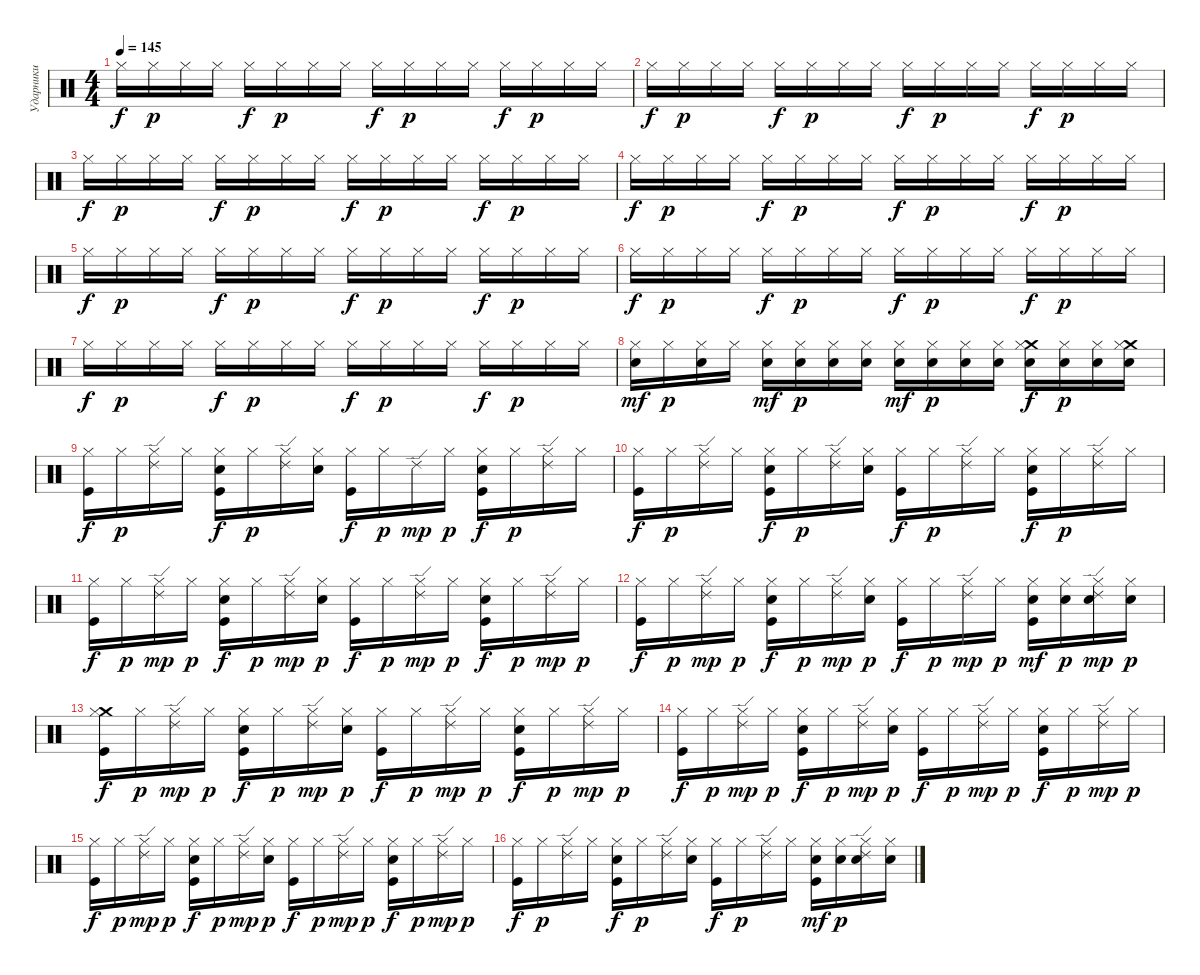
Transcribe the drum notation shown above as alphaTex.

\track ("Ударники" "Ударники") {instrument percussion}
\staff {score}
\articulation defaults
\ts (4 4)
\tempo 145
\clef neutral
\ks c "Hi-Hat (closed)".16{dy f} "Hi-Hat (closed)".16{dy p} "Hi-Hat (closed)".16 "Hi-Hat (closed)".16 "Hi-Hat (closed)".16{dy f} "Hi-Hat (closed)".16{dy p} "Hi-Hat (closed)".16 "Hi-Hat (closed)".16 "Hi-Hat (closed)".16{dy f} "Hi-Hat (closed)".16{dy p} "Hi-Hat (closed)".16 "Hi-Hat (closed)".16 "Hi-Hat (closed)".16{dy f} "Hi-Hat (closed)".16{dy p} "Hi-Hat (closed)".16 "Hi-Hat (closed)".16
|
"Hi-Hat (closed)".16{dy f} "Hi-Hat (closed)".16{dy p} "Hi-Hat (closed)".16 "Hi-Hat (closed)".16 "Hi-Hat (closed)".16{dy f} "Hi-Hat (closed)".16{dy p} "Hi-Hat (closed)".16 "Hi-Hat (closed)".16 "Hi-Hat (closed)".16{dy f} "Hi-Hat (closed)".16{dy p} "Hi-Hat (closed)".16 "Hi-Hat (closed)".16 "Hi-Hat (closed)".16{dy f} "Hi-Hat (closed)".16{dy p} "Hi-Hat (closed)".16 "Hi-Hat (closed)".16 |
"Hi-Hat (closed)".16{dy f} "Hi-Hat (closed)".16{dy p} "Hi-Hat (closed)".16 "Hi-Hat (closed)".16 "Hi-Hat (closed)".16{dy f} "Hi-Hat (closed)".16{dy p} "Hi-Hat (closed)".16 "Hi-Hat (closed)".16 "Hi-Hat (closed)".16{dy f} "Hi-Hat (closed)".16{dy p} "Hi-Hat (closed)".16 "Hi-Hat (closed)".16 "Hi-Hat (closed)".16{dy f} "Hi-Hat (closed)".16{dy p} "Hi-Hat (closed)".16 "Hi-Hat (closed)".16 |
"Hi-Hat (closed)".16{dy f} "Hi-Hat (closed)".16{dy p} "Hi-Hat (closed)".16 "Hi-Hat (closed)".16 "Hi-Hat (closed)".16{dy f} "Hi-Hat (closed)".16{dy p} "Hi-Hat (closed)".16 "Hi-Hat (closed)".16 "Hi-Hat (closed)".16{dy f} "Hi-Hat (closed)".16{dy p} "Hi-Hat (closed)".16 "Hi-Hat (closed)".16 "Hi-Hat (closed)".16{dy f} "Hi-Hat (closed)".16{dy p} "Hi-Hat (closed)".16 "Hi-Hat (closed)".16 |
"Hi-Hat (closed)".16{dy f} "Hi-Hat (closed)".16{dy p} "Hi-Hat (closed)".16 "Hi-Hat (closed)".16 "Hi-Hat (closed)".16{dy f} "Hi-Hat (closed)".16{dy p} "Hi-Hat (closed)".16 "Hi-Hat (closed)".16 "Hi-Hat (closed)".16{dy f} "Hi-Hat (closed)".16{dy p} "Hi-Hat (closed)".16 "Hi-Hat (closed)".16 "Hi-Hat (closed)".16{dy f} "Hi-Hat (closed)".16{dy p} "Hi-Hat (closed)".16 "Hi-Hat (closed)".16 |
"Hi-Hat (closed)".16{dy f} "Hi-Hat (closed)".16{dy p} "Hi-Hat (closed)".16 "Hi-Hat (closed)".16 "Hi-Hat (closed)".16{dy f} "Hi-Hat (closed)".16{dy p} "Hi-Hat (closed)".16 "Hi-Hat (closed)".16 "Hi-Hat (closed)".16{dy f} "Hi-Hat (closed)".16{dy p} "Hi-Hat (closed)".16 "Hi-Hat (closed)".16 "Hi-Hat (closed)".16{dy f} "Hi-Hat (closed)".16{dy p} "Hi-Hat (closed)".16 "Hi-Hat (closed)".16 |
"Hi-Hat (closed)".16{dy f} "Hi-Hat (closed)".16{dy p} "Hi-Hat (closed)".16 "Hi-Hat (closed)".16 "Hi-Hat (closed)".16{dy f} "Hi-Hat (closed)".16{dy p} "Hi-Hat (closed)".16 "Hi-Hat (closed)".16 "Hi-Hat (closed)".16{dy f} "Hi-Hat (closed)".16{dy p} "Hi-Hat (closed)".16 "Hi-Hat (closed)".16 "Hi-Hat (closed)".16{dy f} "Hi-Hat (closed)".16{dy p} "Hi-Hat (closed)".16 "Hi-Hat (closed)".16 |
("Electric Snare (hit)" "Hi-Hat (closed)").16{dy mf} "Hi-Hat (closed)".16{dy p} ("Electric Snare (hit)" "Hi-Hat (closed)").16 "Hi-Hat (closed)".16 ("Electric Snare (hit)" "Hi-Hat (closed)").16{dy mf} ("Electric Snare (hit)" "Hi-Hat (closed)").16{dy p} ("Electric Snare (hit)" "Hi-Hat (closed)").16 ("Electric Snare (hit)" "Hi-Hat (closed)").16 ("Electric Snare (hit)" "Hi-Hat (closed)").16{dy mf} ("Electric Snare (hit)" "Hi-Hat (closed)").16{dy p} ("Electric Snare (hit)" "Hi-Hat (closed)").16 ("Electric Snare (hit)" "Hi-Hat (closed)").16 ("Crash medium (hit)" "Electric Snare (hit)" "Hi-Hat (closed)").16{dy f} ("Electric Snare (hit)" "Hi-Hat (closed)").16{dy p} ("Electric Snare (hit)" "Hi-Hat (closed)").16 ("Crash medium (hit)" "Electric Snare (hit)" "Hi-Hat (closed)").16 |
("Kick (hit)" "Hi-Hat (closed)").16{dy f} "Hi-Hat (closed)".16{dy p} ("Ride (edge) 2" "Hi-Hat (closed)").16 "Hi-Hat (closed)".16 ("Electric Snare (hit)" "Kick (hit)" "Hi-Hat (closed)").16{dy f} "Hi-Hat (closed)".16{dy p} ("Ride (edge) 2" "Hi-Hat (closed)").16 ("Electric Snare (hit)" "Hi-Hat (closed)").16 ("Kick (hit)" "Hi-Hat (closed)").16{dy f} "Hi-Hat (closed)".16{dy p} "Ride (edge) 2".16{dy mp} "Hi-Hat (closed)".16{dy p} ("Electric Snare (hit)" "Kick (hit)" "Hi-Hat (closed)").16{dy f} "Hi-Hat (closed)".16{dy p} ("Ride (edge) 2" "Hi-Hat (closed)").16 "Hi-Hat (closed)".16 |
("Kick (hit)" "Hi-Hat (closed)").16{dy f} "Hi-Hat (closed)".16{dy p} ("Ride (edge) 2" "Hi-Hat (closed)").16 "Hi-Hat (closed)".16 ("Electric Snare (hit)" "Kick (hit)" "Hi-Hat (closed)").16{dy f} "Hi-Hat (closed)".16{dy p} ("Ride (edge) 2" "Hi-Hat (closed)").16 ("Electric Snare (hit)" "Hi-Hat (closed)").16 ("Kick (hit)" "Hi-Hat (closed)").16{dy f} "Hi-Hat (closed)".16{dy p} ("Ride (edge) 2" "Hi-Hat (closed)").16 "Hi-Hat (closed)".16 ("Electric Snare (hit)" "Kick (hit)" "Hi-Hat (closed)").16{dy f} "Hi-Hat (closed)".16{dy p} ("Ride (edge) 2" "Hi-Hat (closed)").16 "Hi-Hat (closed)".16 |
("Kick (hit)" "Hi-Hat (closed)").16{dy f} "Hi-Hat (closed)".16{dy p} ("Hi-Hat (closed)" "Ride (edge) 2").16{dy mp} "Hi-Hat (closed)".16{dy p} ("Electric Snare (hit)" "Kick (hit)" "Hi-Hat (closed)").16{dy f} "Hi-Hat (closed)".16{dy p} ("Hi-Hat (closed)" "Ride (edge) 2").16{dy mp} ("Electric Snare (hit)" "Hi-Hat (closed)").16{dy p} ("Kick (hit)" "Hi-Hat (closed)").16{dy f} "Hi-Hat (closed)".16{dy p} ("Hi-Hat (closed)" "Ride (edge) 2").16{dy mp} "Hi-Hat (closed)".16{dy p} ("Electric Snare (hit)" "Kick (hit)" "Hi-Hat (closed)").16{dy f} "Hi-Hat (closed)".16{dy p} ("Hi-Hat (closed)" "Ride (edge) 2").16{dy mp} "Hi-Hat (closed)".16{dy p} |
("Kick (hit)" "Hi-Hat (closed)").16{dy f} "Hi-Hat (closed)".16{dy p} ("Hi-Hat (closed)" "Ride (edge) 2").16{dy mp} "Hi-Hat (closed)".16{dy p} ("Electric Snare (hit)" "Kick (hit)" "Hi-Hat (closed)").16{dy f} "Hi-Hat (closed)".16{dy p} ("Hi-Hat (closed)" "Ride (edge) 2").16{dy mp} ("Electric Snare (hit)" "Hi-Hat (closed)").16{dy p} ("Kick (hit)" "Hi-Hat (closed)").16{dy f} "Hi-Hat (closed)".16{dy p} ("Hi-Hat (closed)" "Ride (edge) 2").16{dy mp} "Hi-Hat (closed)".16{dy p} ("Electric Snare (hit)" "Kick (hit)" "Hi-Hat (closed)").16{dy mf} ("Electric Snare (hit)" "Hi-Hat (closed)").16{dy p} ("Electric Snare (hit)" "Hi-Hat (closed)" "Ride (edge) 2").16{dy mp} ("Electric Snare (hit)" "Hi-Hat (closed)").16{dy p} |
("Crash medium (hit)" "Kick (hit)" "Hi-Hat (closed)").16{dy f} "Hi-Hat (closed)".16{dy p} ("Hi-Hat (closed)" "Ride (edge) 2").16{dy mp} "Hi-Hat (closed)".16{dy p} ("Electric Snare (hit)" "Kick (hit)" "Hi-Hat (closed)").16{dy f} "Hi-Hat (closed)".16{dy p} ("Hi-Hat (closed)" "Ride (edge) 2").16{dy mp} ("Electric Snare (hit)" "Hi-Hat (closed)").16{dy p} ("Kick (hit)" "Hi-Hat (closed)").16{dy f} "Hi-Hat (closed)".16{dy p} ("Hi-Hat (closed)" "Ride (edge) 2").16{dy mp} "Hi-Hat (closed)".16{dy p} ("Electric Snare (hit)" "Kick (hit)" "Hi-Hat (closed)").16{dy f} "Hi-Hat (closed)".16{dy p} ("Hi-Hat (closed)" "Ride (edge) 2").16{dy mp} "Hi-Hat (closed)".16{dy p} |
("Kick (hit)" "Hi-Hat (closed)").16{dy f} "Hi-Hat (closed)".16{dy p} ("Hi-Hat (closed)" "Ride (edge) 2").16{dy mp} "Hi-Hat (closed)".16{dy p} ("Electric Snare (hit)" "Kick (hit)" "Hi-Hat (closed)").16{dy f} "Hi-Hat (closed)".16{dy p} ("Hi-Hat (closed)" "Ride (edge) 2").16{dy mp} ("Electric Snare (hit)" "Hi-Hat (closed)").16{dy p} ("Kick (hit)" "Hi-Hat (closed)").16{dy f} "Hi-Hat (closed)".16{dy p} ("Hi-Hat (closed)" "Ride (edge) 2").16{dy mp} "Hi-Hat (closed)".16{dy p} ("Electric Snare (hit)" "Kick (hit)" "Hi-Hat (closed)").16{dy f} "Hi-Hat (closed)".16{dy p} ("Hi-Hat (closed)" "Ride (edge) 2").16{dy mp} "Hi-Hat (closed)".16{dy p} |
("Kick (hit)" "Hi-Hat (closed)").16{dy f} "Hi-Hat (closed)".16{dy p} ("Hi-Hat (closed)" "Ride (edge) 2").16{dy mp} "Hi-Hat (closed)".16{dy p} ("Electric Snare (hit)" "Kick (hit)" "Hi-Hat (closed)").16{dy f} "Hi-Hat (closed)".16{dy p} ("Hi-Hat (closed)" "Ride (edge) 2").16{dy mp} ("Electric Snare (hit)" "Hi-Hat (closed)").16{dy p} ("Kick (hit)" "Hi-Hat (closed)").16{dy f} "Hi-Hat (closed)".16{dy p} ("Hi-Hat (closed)" "Ride (edge) 2").16{dy mp} "Hi-Hat (closed)".16{dy p} ("Electric Snare (hit)" "Kick (hit)" "Hi-Hat (closed)").16{dy f} "Hi-Hat (closed)".16{dy p} ("Hi-Hat (closed)" "Ride (edge) 2").16{dy mp} "Hi-Hat (closed)".16{dy p} |
("Kick (hit)" "Hi-Hat (closed)").16{dy f} "Hi-Hat (closed)".16{dy p} ("Ride (edge) 2" "Hi-Hat (closed)").16 "Hi-Hat (closed)".16 ("Electric Snare (hit)" "Kick (hit)" "Hi-Hat (closed)").16{dy f} "Hi-Hat (closed)".16{dy p} ("Ride (edge) 2" "Hi-Hat (closed)").16 ("Electric Snare (hit)" "Hi-Hat (closed)").16 ("Kick (hit)" "Hi-Hat (closed)").16{dy f} "Hi-Hat (closed)".16{dy p} ("Ride (edge) 2" "Hi-Hat (closed)").16 "Hi-Hat (closed)".16 ("Electric Snare (hit)" "Kick (hit)" "Hi-Hat (closed)").16{dy mf} ("Electric Snare (hit)" "Hi-Hat (closed)").16{dy p} ("Electric Snare (hit)" "Ride (edge) 2" "Hi-Hat (closed)").16 ("Electric Snare (hit)" "Hi-Hat (closed)").16
